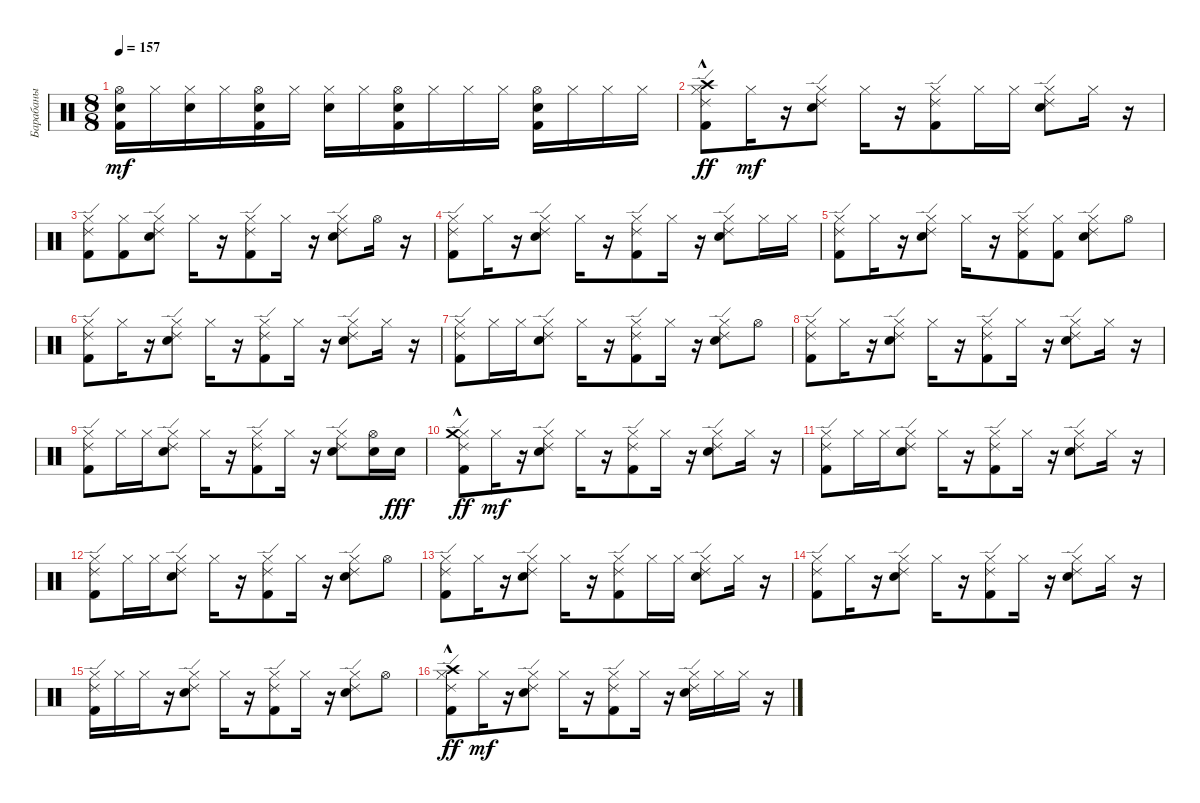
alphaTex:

\track ("Барабаны" "Барабаны") {instrument percussion}
\staff {score}
\articulation defaults
\ts (8 8)
\tempo 157
\clef neutral
\ks c
("Kick (hit) 2" "Snare (hit) 2" "Hi-Hat (open)").16{dy mf} "Hi-Hat (closed)".16 ("Snare (hit) 2" "Hi-Hat (closed)").16 "Hi-Hat (closed)".16 ("Kick (hit) 2" "Snare (hit) 2" "Hi-Hat (open)").16 "Hi-Hat (closed)".16 ("Snare (hit) 2" "Hi-Hat (closed)").16 "Hi-Hat (closed)".16 ("Kick (hit) 2" "Snare (hit) 2" "Hi-Hat (open)").16 "Hi-Hat (closed)".16 "Hi-Hat (closed)".16 "Hi-Hat (closed)".16 ("Kick (hit) 2" "Snare (hit) 2" "Hi-Hat (open)").16 "Hi-Hat (closed)".16 "Hi-Hat (closed)".16 "Hi-Hat (closed)".16 |
("Kick (hit) 2" "Hi-Hat (closed)" "Ride (edge) 2" "Crash high (hit)"{hac}).8{dy ff} "Hi-Hat (closed)".16{dy mf} r.16 ("Snare (hit) 2" "Hi-Hat (closed)" "Ride (edge) 2").8 "Hi-Hat (closed)".16 r.16 ("Kick (hit) 2" "Hi-Hat (closed)" "Ride (edge) 2").8 "Hi-Hat (closed)".16 "Hi-Hat (closed)".16 ("Snare (hit) 2" "Hi-Hat (closed)" "Ride (edge) 2").8 "Hi-Hat (closed)".16 r.16 |
("Kick (hit) 2" "Hi-Hat (closed)" "Ride (edge) 2").8 ("Kick (hit) 2" "Hi-Hat (closed)").8 ("Snare (hit) 2" "Hi-Hat (closed)" "Ride (edge) 2").8 "Hi-Hat (closed)".16 r.16 ("Kick (hit) 2" "Hi-Hat (closed)" "Ride (edge) 2").8 "Hi-Hat (closed)".16 r.16 ("Snare (hit) 2" "Hi-Hat (closed)" "Ride (edge) 2").8 "Hi-Hat (open)".16 r.16 |
("Kick (hit) 2" "Hi-Hat (closed)" "Ride (edge) 2").8 "Hi-Hat (closed)".16 r.16 ("Snare (hit) 2" "Hi-Hat (closed)" "Ride (edge) 2").8 "Hi-Hat (closed)".16 r.16 ("Kick (hit) 2" "Hi-Hat (closed)" "Ride (edge) 2").8 "Hi-Hat (closed)".16 r.16 ("Snare (hit) 2" "Hi-Hat (closed)" "Ride (edge) 2").8 "Hi-Hat (closed)".16 "Hi-Hat (closed)".16 |
("Kick (hit) 2" "Hi-Hat (closed)" "Ride (edge) 2").8 "Hi-Hat (closed)".16 r.16 ("Snare (hit) 2" "Hi-Hat (closed)" "Ride (edge) 2").8 "Hi-Hat (closed)".16 r.16 ("Kick (hit) 2" "Hi-Hat (closed)" "Ride (edge) 2").8 ("Kick (hit) 2" "Hi-Hat (closed)").8 ("Snare (hit) 2" "Hi-Hat (closed)" "Ride (edge) 2").8 "Hi-Hat (open)".8 |
("Kick (hit) 2" "Hi-Hat (closed)" "Ride (edge) 2").8 "Hi-Hat (closed)".16 r.16 ("Snare (hit) 2" "Hi-Hat (closed)" "Ride (edge) 2").8 "Hi-Hat (closed)".16 r.16 ("Kick (hit) 2" "Hi-Hat (closed)" "Ride (edge) 2").8 "Hi-Hat (closed)".16 r.16 ("Snare (hit) 2" "Hi-Hat (closed)" "Ride (edge) 2").8 "Hi-Hat (closed)".16 r.16 |
("Kick (hit) 2" "Hi-Hat (closed)" "Ride (edge) 2").8 "Hi-Hat (closed)".16 "Hi-Hat (closed)".16 ("Snare (hit) 2" "Hi-Hat (closed)" "Ride (edge) 2").8 "Hi-Hat (closed)".16 r.16 ("Kick (hit) 2" "Hi-Hat (closed)" "Ride (edge) 2").8 "Hi-Hat (closed)".16 r.16 ("Snare (hit) 2" "Hi-Hat (closed)" "Ride (edge) 2").8 "Hi-Hat (open)".8 |
("Kick (hit) 2" "Hi-Hat (closed)" "Ride (edge) 2").8 "Hi-Hat (closed)".16 r.16 ("Snare (hit) 2" "Hi-Hat (closed)" "Ride (edge) 2").8 "Hi-Hat (closed)".16 r.16 ("Kick (hit) 2" "Hi-Hat (closed)" "Ride (edge) 2").8 "Hi-Hat (closed)".16 r.16 ("Snare (hit) 2" "Hi-Hat (closed)" "Ride (edge) 2").8 "Hi-Hat (closed)".16 r.16 |
("Kick (hit) 2" "Hi-Hat (closed)" "Ride (edge) 2").8 "Hi-Hat (closed)".16 "Hi-Hat (closed)".16 ("Snare (hit) 2" "Hi-Hat (closed)" "Ride (edge) 2").8 "Hi-Hat (closed)".16 r.16 ("Kick (hit) 2" "Hi-Hat (closed)" "Ride (edge) 2").8 "Hi-Hat (closed)".16 r.16 ("Snare (hit) 2" "Hi-Hat (closed)" "Ride (edge) 2").8 ("Snare (hit) 2" "Hi-Hat (open)").16 "Snare (hit) 2".16{dy fff} |
("Kick (hit) 2" "Hi-Hat (closed)" "Ride (edge) 2" "Crash medium (hit)"{hac}).8{dy ff} "Hi-Hat (closed)".16{dy mf} r.16 ("Snare (hit) 2" "Hi-Hat (closed)" "Ride (edge) 2").8 "Hi-Hat (closed)".16 r.16 ("Kick (hit) 2" "Hi-Hat (closed)" "Ride (edge) 2").8 "Hi-Hat (closed)".16 r.16 ("Snare (hit) 2" "Hi-Hat (closed)" "Ride (edge) 2").8 "Hi-Hat (closed)".16 r.16 |
("Kick (hit) 2" "Hi-Hat (closed)" "Ride (edge) 2").8 "Hi-Hat (closed)".16 "Hi-Hat (closed)".16 ("Snare (hit) 2" "Hi-Hat (closed)" "Ride (edge) 2").8 "Hi-Hat (closed)".16 r.16 ("Kick (hit) 2" "Hi-Hat (closed)" "Ride (edge) 2").8 "Hi-Hat (closed)".16 r.16 ("Snare (hit) 2" "Hi-Hat (closed)" "Ride (edge) 2").8 "Hi-Hat (closed)".16 r.16 |
("Kick (hit) 2" "Hi-Hat (closed)" "Ride (edge) 2").8 "Hi-Hat (closed)".16 "Hi-Hat (closed)".16 ("Snare (hit) 2" "Hi-Hat (closed)" "Ride (edge) 2").8 "Hi-Hat (closed)".16 r.16 ("Kick (hit) 2" "Hi-Hat (closed)" "Ride (edge) 2").8 "Hi-Hat (closed)".16 r.16 ("Snare (hit) 2" "Hi-Hat (closed)" "Ride (edge) 2").8 "Hi-Hat (open)".8 |
("Kick (hit) 2" "Hi-Hat (closed)" "Ride (edge) 2").8 "Hi-Hat (closed)".16 r.16 ("Snare (hit) 2" "Hi-Hat (closed)" "Ride (edge) 2").8 "Hi-Hat (closed)".16 r.16 ("Kick (hit) 2" "Hi-Hat (closed)" "Ride (edge) 2").8 "Hi-Hat (closed)".16 "Hi-Hat (closed)".16 ("Snare (hit) 2" "Hi-Hat (closed)" "Ride (edge) 2").8 "Hi-Hat (closed)".16 r.16 |
("Kick (hit) 2" "Hi-Hat (closed)" "Ride (edge) 2").8 "Hi-Hat (closed)".16 r.16 ("Snare (hit) 2" "Hi-Hat (closed)" "Ride (edge) 2").8 "Hi-Hat (closed)".16 r.16 ("Kick (hit) 2" "Hi-Hat (closed)" "Ride (edge) 2").8 "Hi-Hat (closed)".16 r.16 ("Snare (hit) 2" "Hi-Hat (closed)" "Ride (edge) 2").8 "Hi-Hat (closed)".16 r.16 |
("Kick (hit) 2" "Hi-Hat (closed)" "Ride (edge) 2").16 "Hi-Hat (closed)".16 "Hi-Hat (closed)".16 r.16 ("Snare (hit) 2" "Hi-Hat (closed)" "Ride (edge) 2").8 "Hi-Hat (closed)".16 r.16 ("Kick (hit) 2" "Hi-Hat (closed)" "Ride (edge) 2").8 "Hi-Hat (closed)".16 r.16 ("Snare (hit) 2" "Hi-Hat (closed)" "Ride (edge) 2").8 "Hi-Hat (open)".8 |
("Kick (hit) 2" "Hi-Hat (closed)" "Ride (edge) 2" "Crash high (hit)"{hac}).8{dy ff} "Hi-Hat (closed)".16{dy mf} r.16 ("Snare (hit) 2" "Hi-Hat (closed)" "Ride (edge) 2").8 "Hi-Hat (closed)".16 r.16 ("Kick (hit) 2" "Hi-Hat (closed)" "Ride (edge) 2").8 "Hi-Hat (closed)".16 r.16 ("Snare (hit) 2" "Hi-Hat (closed)" "Ride (edge) 2").16 "Hi-Hat (closed)".16 "Hi-Hat (closed)".16 r.16
